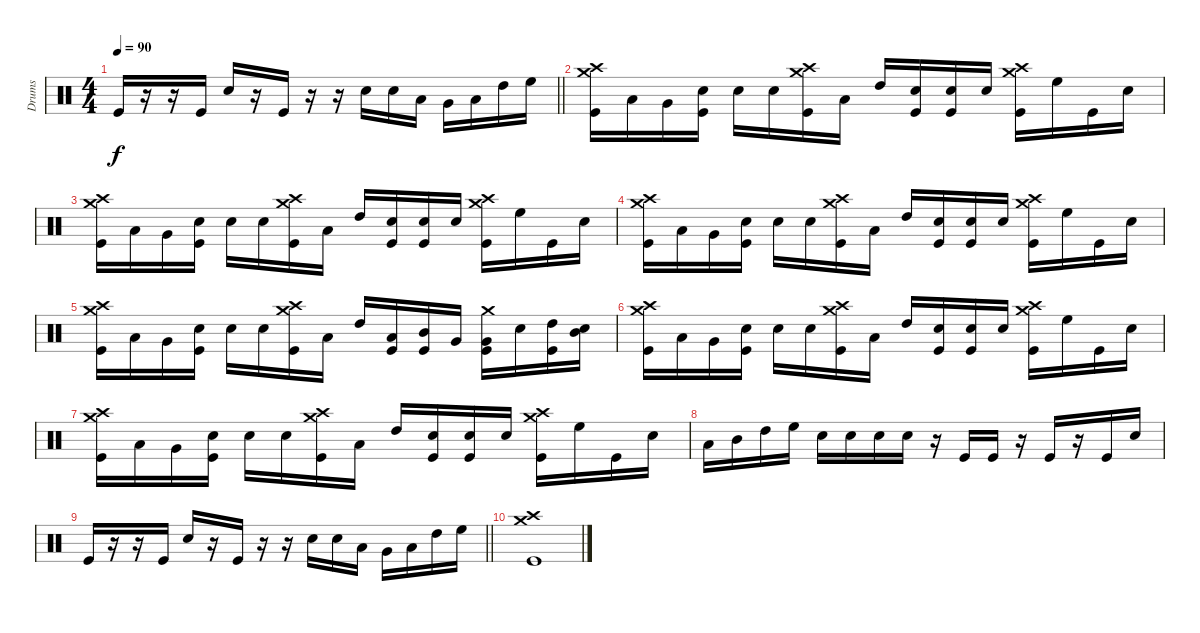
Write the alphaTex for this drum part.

\track ("Drums" "Drums") {instrument percussion}
\staff {score}
\articulation defaults
\ts (4 4)
\tempo 90
\clef neutral
\barLineRight lightlight
\ks c "Kick (hit)".16{dy f}
r.16 r.16 "Kick (hit)".16 "Snare (hit) 2".16 r.16 "Kick (hit)".16 r.16 r.16 "Snare (hit) 2".16 "Snare (hit) 2".16 "Low Floor Tom (hit)".16 "Very Low Tom (hit)".16 "Low Tom (hit)".16 "High Tom (hit)".16 "High Floor Tom (hit)".16 |
("Crash medium (hit)" "Crash high (hit)" "Kick (hit)").16 "Low Floor Tom (hit)".16 "Very Low Tom (hit)".16 ("Snare (hit) 2" "Kick (hit)").16 "Snare (hit) 2".16 "Snare (hit) 2".16 ("Crash medium (hit)" "Crash high (hit)" "Kick (hit)").16 "Low Tom (hit)".16 "High Tom (hit)".16 ("Snare (hit) 2" "Kick (hit)").16 ("Snare (hit) 2" "Kick (hit)").16 "Snare (hit) 2".16 ("Crash medium (hit)" "Crash high (hit)" "Kick (hit)").16 "High Floor Tom (hit)".16 "Kick (hit)".16 "Snare (hit) 2".16 |
("Crash medium (hit)" "Crash high (hit)" "Kick (hit)").16 "Low Floor Tom (hit)".16 "Very Low Tom (hit)".16 ("Snare (hit) 2" "Kick (hit)").16 "Snare (hit) 2".16 "Snare (hit) 2".16 ("Crash medium (hit)" "Crash high (hit)" "Kick (hit)").16 "Low Tom (hit)".16 "High Tom (hit)".16 ("Snare (hit) 2" "Kick (hit)").16 ("Snare (hit) 2" "Kick (hit)").16 "Snare (hit) 2".16 ("Crash medium (hit)" "Crash high (hit)" "Kick (hit)").16 "High Floor Tom (hit)".16 "Kick (hit)".16 "Snare (hit) 2".16 |
("Crash medium (hit)" "Crash high (hit)" "Kick (hit)").16 "Low Floor Tom (hit)".16 "Very Low Tom (hit)".16 ("Snare (hit) 2" "Kick (hit)").16 "Snare (hit) 2".16 "Snare (hit) 2".16 ("Crash medium (hit)" "Crash high (hit)" "Kick (hit)").16 "Low Tom (hit)".16 "High Tom (hit)".16 ("Snare (hit) 2" "Kick (hit)").16 ("Snare (hit) 2" "Kick (hit)").16 "Snare (hit) 2".16 ("Crash medium (hit)" "Crash high (hit)" "Kick (hit)").16 "High Floor Tom (hit)".16 "Kick (hit)".16 "Snare (hit) 2".16 |
("Crash medium (hit)" "Crash high (hit)" "Kick (hit)").16 "Low Floor Tom (hit)".16 "Very Low Tom (hit)".16 ("Snare (hit) 2" "Kick (hit)").16 "Snare (hit) 2".16 "Snare (hit) 2".16 ("Crash medium (hit)" "Crash high (hit)" "Kick (hit)").16 "Low Tom (hit)".16 "High Tom (hit)".16 ("Low Tom (hit)" "Kick (hit)").16 ("Mid Tom (hit)" "Kick (hit)").16 "Very Low Tom (hit)".16 ("Crash medium (hit)" "Very Low Tom (hit)" "Kick (hit)").16 "Snare (hit) 2".16 ("High Tom (hit)" "Kick (hit)").16 ("Mid Tom (hit)" "Snare (hit) 2").16 |
("Crash medium (hit)" "Crash high (hit)" "Kick (hit)").16 "Low Floor Tom (hit)".16 "Very Low Tom (hit)".16 ("Snare (hit) 2" "Kick (hit)").16 "Snare (hit) 2".16 "Snare (hit) 2".16 ("Crash medium (hit)" "Crash high (hit)" "Kick (hit)").16 "Low Tom (hit)".16 "High Tom (hit)".16 ("Snare (hit) 2" "Kick (hit)").16 ("Snare (hit) 2" "Kick (hit)").16 "Snare (hit) 2".16 ("Crash medium (hit)" "Crash high (hit)" "Kick (hit)").16 "High Floor Tom (hit)".16 "Kick (hit)".16 "Snare (hit) 2".16 |
("Crash medium (hit)" "Crash high (hit)" "Kick (hit)").16 "Low Floor Tom (hit)".16 "Very Low Tom (hit)".16 ("Snare (hit) 2" "Kick (hit)").16 "Snare (hit) 2".16 "Snare (hit) 2".16 ("Crash medium (hit)" "Crash high (hit)" "Kick (hit)").16 "Low Tom (hit)".16 "High Tom (hit)".16 ("Snare (hit) 2" "Kick (hit)").16 ("Snare (hit) 2" "Kick (hit)").16 "Snare (hit) 2".16 ("Crash medium (hit)" "Crash high (hit)" "Kick (hit)").16 "High Floor Tom (hit)".16 "Kick (hit)".16 "Snare (hit) 2".16 |
"Low Tom (hit)".16 "Mid Tom (hit)".16 "High Tom (hit)".16 "High Floor Tom (hit)".16 "Snare (hit) 2".16 "Snare (hit) 2".16 "Snare (hit) 2".16 "Snare (hit) 2".16 r.16 "Kick (hit)".16 "Kick (hit)".16 r.16 "Kick (hit)".16 r.16 "Kick (hit)".16 "Snare (hit) 2".16 |
\barLineRight lightlight "Kick (hit)".16
r.16 r.16 "Kick (hit)".16 "Snare (hit) 2".16 r.16 "Kick (hit)".16 r.16 r.16 "Snare (hit) 2".16 "Snare (hit) 2".16 "Low Floor Tom (hit)".16 "Very Low Tom (hit)".16 "Low Tom (hit)".16 "High Tom (hit)".16 "High Floor Tom (hit)".16 |
("Crash medium (hit)" "Crash high (hit)" "Kick (hit)").1
